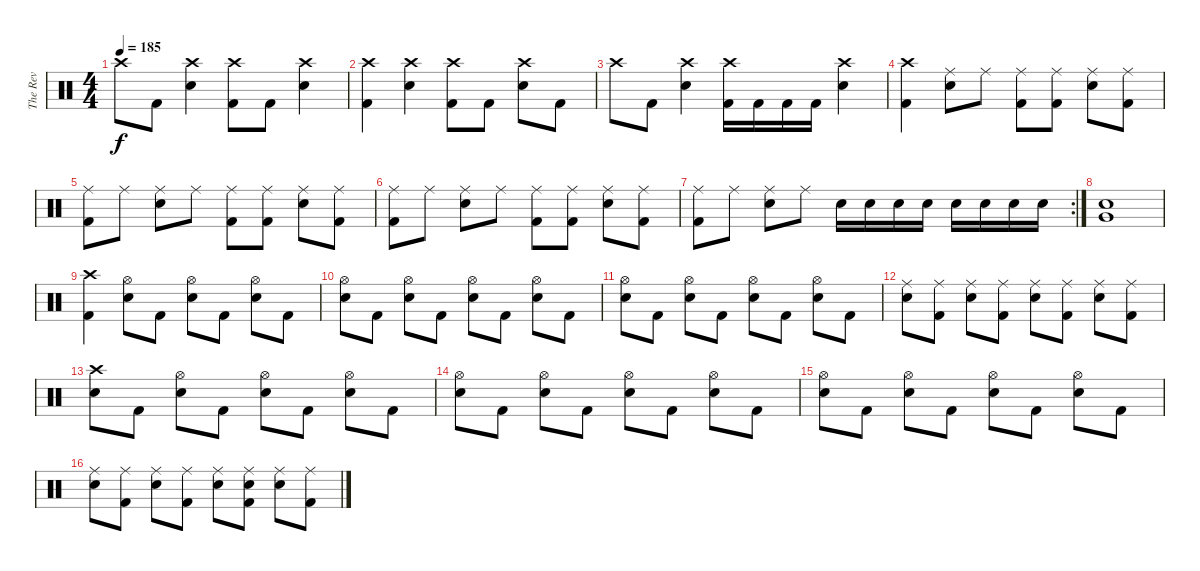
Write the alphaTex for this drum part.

\track ("The Rev" "The Rev") {instrument percussion}
\staff {score}
\articulation defaults
\ts (4 4)
\tempo 185
\clef neutral
\ks c "Crash high (hit)".8{dy f} "Kick (hit) 2".8
("Crash high (hit)" "Electric Snare (hit)").4 ("Crash high (hit)" "Kick (hit) 2").8 "Kick (hit) 2".8 ("Crash high (hit)" "Electric Snare (hit)").4 |
("Crash high (hit)" "Kick (hit) 2").4 ("Crash high (hit)" "Electric Snare (hit)").4 ("Crash high (hit)" "Kick (hit) 2").8 "Kick (hit) 2".8 ("Crash high (hit)" "Electric Snare (hit)").8 "Kick (hit) 2".8 |
"Crash high (hit)".8 "Kick (hit) 2".8 ("Crash high (hit)" "Electric Snare (hit)").4 ("Crash high (hit)" "Kick (hit) 2").16 "Kick (hit) 2".16 "Kick (hit) 2".16 "Kick (hit) 2".16 ("Crash high (hit)" "Electric Snare (hit)").4 |
("Crash high (hit)" "Kick (hit) 2").4 ("Ride (middle)" "Electric Snare (hit)").8 "Ride (middle)".8 ("Ride (middle)" "Kick (hit) 2").8 ("Ride (middle)" "Kick (hit) 2").8 ("Ride (middle)" "Electric Snare (hit)").8 ("Ride (middle)" "Kick (hit) 2").8 |
("Ride (middle)" "Kick (hit) 2").8 "Ride (middle)".8 ("Ride (middle)" "Electric Snare (hit)").8 "Ride (middle)".8 ("Ride (middle)" "Kick (hit) 2").8 ("Ride (middle)" "Kick (hit) 2").8 ("Ride (middle)" "Electric Snare (hit)").8 ("Ride (middle)" "Kick (hit) 2").8 |
("Ride (middle)" "Kick (hit) 2").8 "Ride (middle)".8 ("Ride (middle)" "Electric Snare (hit)").8 "Ride (middle)".8 ("Ride (middle)" "Kick (hit) 2").8 ("Ride (middle)" "Kick (hit) 2").8 ("Ride (middle)" "Electric Snare (hit)").8 ("Ride (middle)" "Kick (hit) 2").8 |
\rc 2
("Ride (middle)" "Kick (hit) 2").8 "Ride (middle)".8 ("Ride (middle)" "Electric Snare (hit)").8 "Ride (middle)".8 "Electric Snare (hit)".16 "Electric Snare (hit)".16 "Electric Snare (hit)".16 "Electric Snare (hit)".16 "Electric Snare (hit)".16 "Electric Snare (hit)".16 "Electric Snare (hit)".16 "Electric Snare (hit)".16 |
("Very Low Tom (hit)" "Electric Snare (hit)").1 |
("Crash high (hit)" "Kick (hit) 2").4 ("Hi-Hat (open)" "Electric Snare (hit)").8 "Kick (hit) 2".8 ("Hi-Hat (open)" "Electric Snare (hit)").8 "Kick (hit) 2".8 ("Hi-Hat (open)" "Electric Snare (hit)").8 "Kick (hit) 2".8 |
("Hi-Hat (open)" "Electric Snare (hit)").8 "Kick (hit) 2".8 ("Hi-Hat (open)" "Electric Snare (hit)").8 "Kick (hit) 2".8 ("Hi-Hat (open)" "Electric Snare (hit)").8 "Kick (hit) 2".8 ("Hi-Hat (open)" "Electric Snare (hit)").8 "Kick (hit) 2".8 |
("Hi-Hat (open)" "Electric Snare (hit)").8 "Kick (hit) 2".8 ("Hi-Hat (open)" "Electric Snare (hit)").8 "Kick (hit) 2".8 ("Hi-Hat (open)" "Electric Snare (hit)").8 "Kick (hit) 2".8 ("Hi-Hat (open)" "Electric Snare (hit)").8 "Kick (hit) 2".8 |
("Ride (middle)" "Electric Snare (hit)").8 ("Ride (middle)" "Kick (hit) 2").8 ("Ride (middle)" "Electric Snare (hit)").8 ("Ride (middle)" "Kick (hit) 2").8 ("Ride (middle)" "Electric Snare (hit)").8 ("Ride (middle)" "Kick (hit) 2").8 ("Ride (middle)" "Electric Snare (hit)").8 ("Ride (middle)" "Kick (hit) 2").8 |
("Crash high (hit)" "Electric Snare (hit)").8 "Kick (hit) 2".8 ("Hi-Hat (open)" "Electric Snare (hit)").8 "Kick (hit) 2".8 ("Hi-Hat (open)" "Electric Snare (hit)").8 "Kick (hit) 2".8 ("Hi-Hat (open)" "Electric Snare (hit)").8 "Kick (hit) 2".8 |
("Hi-Hat (open)" "Electric Snare (hit)").8 "Kick (hit) 2".8 ("Hi-Hat (open)" "Electric Snare (hit)").8 "Kick (hit) 2".8 ("Hi-Hat (open)" "Electric Snare (hit)").8 "Kick (hit) 2".8 ("Hi-Hat (open)" "Electric Snare (hit)").8 "Kick (hit) 2".8 |
("Hi-Hat (open)" "Electric Snare (hit)").8 "Kick (hit) 2".8 ("Hi-Hat (open)" "Electric Snare (hit)").8 "Kick (hit) 2".8 ("Hi-Hat (open)" "Electric Snare (hit)").8 "Kick (hit) 2".8 ("Hi-Hat (open)" "Electric Snare (hit)").8 "Kick (hit) 2".8 |
("Ride (middle)" "Electric Snare (hit)").8 ("Ride (middle)" "Kick (hit) 2").8 ("Ride (middle)" "Electric Snare (hit)").8 ("Ride (middle)" "Kick (hit) 2").8 ("Ride (middle)" "Electric Snare (hit)").8 ("Ride (middle)" "Electric Snare (hit)" "Kick (hit) 2").8 ("Ride (middle)" "Electric Snare (hit)").8 ("Ride (middle)" "Kick (hit) 2").8
